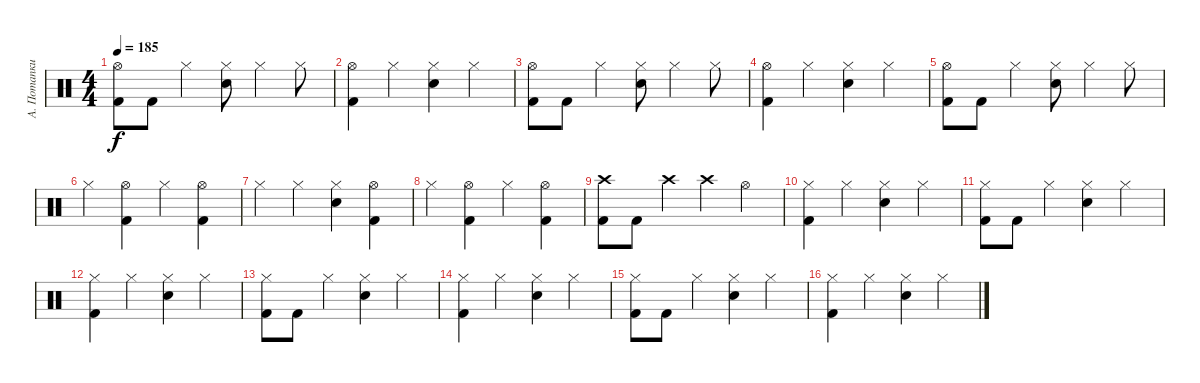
\track ("А. Потапкин" "А. Потапки") {instrument percussion}
\staff {score}
\articulation defaults
\ts (4 4)
\tempo 185
\clef neutral
\ks c
("Hi-Hat (open)" "Kick (hit) 2").8{dy f} "Kick (hit) 2".8 "Hi-Hat (closed)".4 ("Hi-Hat (closed)" "Snare (hit) 2").8 "Hi-Hat (closed)".4 "Hi-Hat (closed)".8 |
("Hi-Hat (open)" "Kick (hit) 2").4 "Hi-Hat (closed)".4 ("Hi-Hat (closed)" "Snare (hit) 2").4 "Hi-Hat (closed)".4 |
("Hi-Hat (open)" "Kick (hit) 2").8 "Kick (hit) 2".8 "Hi-Hat (closed)".4 ("Hi-Hat (closed)" "Snare (hit) 2").8 "Hi-Hat (closed)".4 "Hi-Hat (closed)".8 |
("Hi-Hat (open)" "Kick (hit) 2").4 "Hi-Hat (closed)".4 ("Hi-Hat (closed)" "Snare (hit) 2").4 "Hi-Hat (closed)".4 |
("Hi-Hat (open)" "Kick (hit) 2").8 "Kick (hit) 2".8 "Hi-Hat (closed)".4 ("Hi-Hat (closed)" "Snare (hit) 2").8 "Hi-Hat (closed)".4 "Hi-Hat (closed)".8 |
"Hi-Hat (closed)".4 ("Hi-Hat (open)" "Kick (hit) 2").4 "Hi-Hat (closed)".4 ("Hi-Hat (open)" "Kick (hit) 2").4 |
"Hi-Hat (closed)".4 "Hi-Hat (closed)".4 ("Hi-Hat (closed)" "Snare (hit) 2").4 ("Hi-Hat (open)" "Kick (hit) 2").4 |
"Hi-Hat (closed)".4 ("Hi-Hat (open)" "Kick (hit) 2").4 "Hi-Hat (closed)".4 ("Hi-Hat (open)" "Kick (hit) 2").4 |
("Crash high (hit)" "Kick (hit) 2").8 "Kick (hit) 2".8 "Crash high (hit)".4 "Crash high (hit)".4 "Hi-Hat (open)".4 |
("Hi-Hat (closed)" "Kick (hit) 2").4 "Hi-Hat (closed)".4 ("Hi-Hat (closed)" "Snare (hit) 2").4 "Hi-Hat (closed)".4 |
("Hi-Hat (closed)" "Kick (hit) 2").8 "Kick (hit) 2".8 "Hi-Hat (closed)".4 ("Hi-Hat (closed)" "Snare (hit) 2").4 "Hi-Hat (closed)".4 |
("Hi-Hat (closed)" "Kick (hit) 2").4 "Hi-Hat (closed)".4 ("Hi-Hat (closed)" "Snare (hit) 2").4 "Hi-Hat (closed)".4 |
("Hi-Hat (closed)" "Kick (hit) 2").8 "Kick (hit) 2".8 "Hi-Hat (closed)".4 ("Hi-Hat (closed)" "Snare (hit) 2").4 "Hi-Hat (closed)".4 |
("Hi-Hat (closed)" "Kick (hit) 2").4 "Hi-Hat (closed)".4 ("Hi-Hat (closed)" "Snare (hit) 2").4 "Hi-Hat (closed)".4 |
("Hi-Hat (closed)" "Kick (hit) 2").8 "Kick (hit) 2".8 "Hi-Hat (closed)".4 ("Hi-Hat (closed)" "Snare (hit) 2").4 "Hi-Hat (closed)".4 |
("Hi-Hat (closed)" "Kick (hit) 2").4 "Hi-Hat (closed)".4 ("Hi-Hat (closed)" "Snare (hit) 2").4 "Hi-Hat (closed)".4
